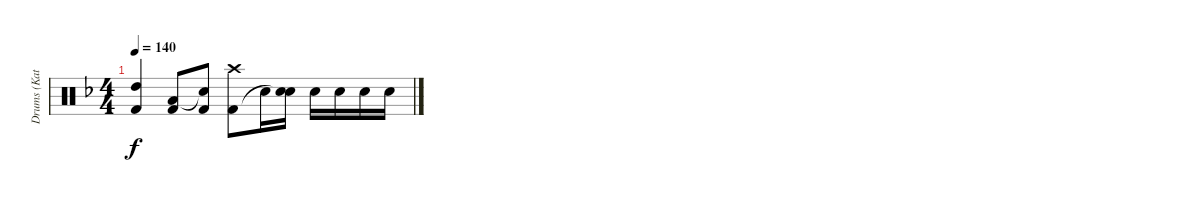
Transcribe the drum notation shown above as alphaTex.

\track ("Drums (Katsuji)" "Drums (Kat") {instrument percussion}
\staff {score}
\articulation defaults
\ts (4 4)
\tempo 140
\clef neutral
\ks f
("High Tom (hit)" "Kick (hit) 2").4{dy f} ("Low Tom (hit)" "Kick (hit) 2").8 ("Snare (hit)"{t} "Kick (hit) 2").8 ("Crash high (hit)" "Kick (hit) 2").8 "Snare (hit) 2".16 ("Snare (hit) 2" "Snare (hit)"{t}).16 "Snare (hit) 2".16 "Snare (hit) 2".16 "Snare (hit) 2".16 "Snare (hit) 2".16
